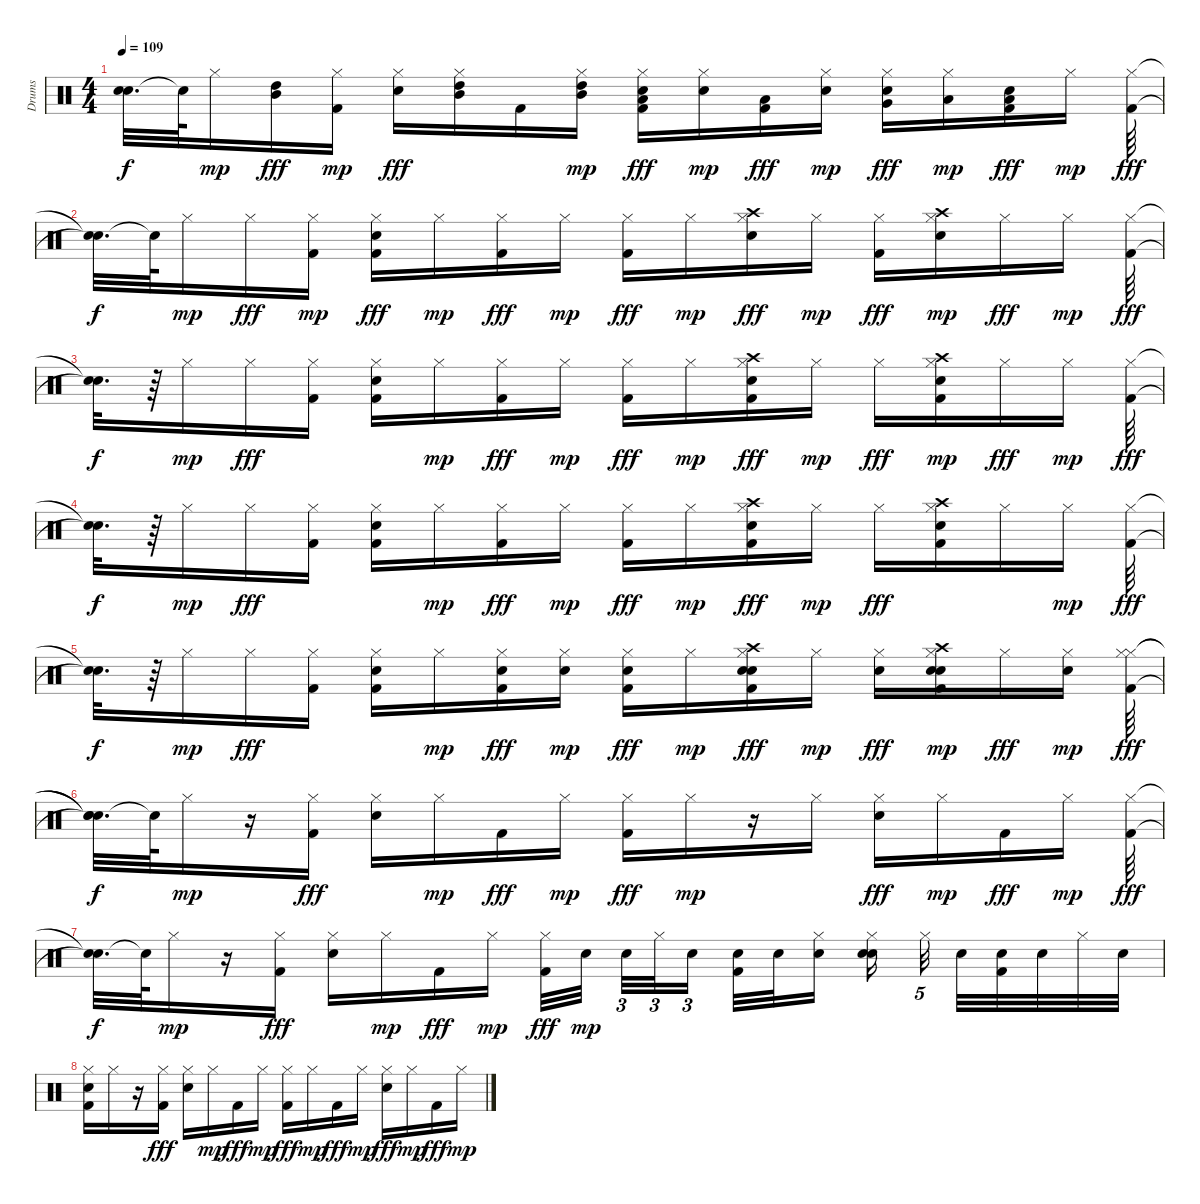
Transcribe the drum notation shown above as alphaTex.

\track ("Drums" "Drums") {instrument percussion}
\staff {score}
\articulation defaults
\ts (4 4)
\tempo 109
\clef neutral
\ks c
("Snare (hit)"{t} "Snare (hit)"{t}).32{d dy f} "Snare (hit)"{t}.64 "Hi-Hat (closed)".16{dy mp} ("High Tom (hit)" "Mid Tom (hit)").16{dy fff} ("Kick (hit) 2" "Hi-Hat (closed)").16{dy mp} ("Hi-Hat (closed)" "Snare (hit) 2").16{dy fff} ("High Tom (hit)" "Hi-Hat (closed)" "Mid Tom (hit)").16 "Kick (hit) 2".16 ("Mid Tom (hit)" "High Tom (hit)" "Hi-Hat (closed)").16{dy mp} ("Low Tom (hit)" "Kick (hit) 2" "Snare (hit) 2" "Hi-Hat (closed)").16{dy fff} ("Snare (hit) 2" "Hi-Hat (closed)").16{dy mp} ("Low Tom (hit)" "Kick (hit) 2").16{dy fff} ("Snare (hit) 2" "Hi-Hat (closed)").16{dy mp} ("Very Low Tom (hit)" "Snare (hit) 2" "Hi-Hat (closed)").16{dy fff} ("Low Floor Tom (hit)" "Hi-Hat (closed)").16{dy mp} ("Low Floor Tom (hit)" "Kick (hit) 2" "Snare (hit) 2").16{dy fff} "Hi-Hat (closed)".16{dy mp} ("Hi-Hat (closed)" "Kick (hit) 2").64{dy fff} |
("Snare (hit)"{t} "Snare (hit)"{t}).32{d dy f} "Snare (hit)"{t}.64 "Hi-Hat (closed)".16{dy mp} "Hi-Hat (closed)".16{dy fff} ("Kick (hit) 2" "Hi-Hat (closed)").16{dy mp} ("Hi-Hat (closed)" "Snare (hit) 2" "Kick (hit) 2").16{dy fff} "Hi-Hat (closed)".16{dy mp} ("Kick (hit) 2" "Hi-Hat (closed)").16{dy fff} "Hi-Hat (closed)".16{dy mp} ("Kick (hit) 2" "Hi-Hat (closed)").16{dy fff} "Hi-Hat (closed)".16{dy mp} ("Snare (hit) 2" "Crash high (hit)" "Hi-Hat (closed)").16{dy fff} "Hi-Hat (closed)".16{dy mp} ("Kick (hit) 2" "Hi-Hat (closed)").16{dy fff} ("Snare (hit) 2" "Crash high (hit)" "Hi-Hat (closed)").16{dy mp} "Hi-Hat (closed)".16{dy fff} "Hi-Hat (closed)".16{dy mp} ("Kick (hit) 2" "Hi-Hat (closed)").64{dy fff} |
("Snare (hit)"{t} "Snare (hit)"{t}).32{d dy f} r.64 "Hi-Hat (closed)".16{dy mp} "Hi-Hat (closed)".16{dy fff} ("Hi-Hat (closed)" "Kick (hit) 2").16 ("Snare (hit) 2" "Kick (hit) 2" "Hi-Hat (closed)").16 "Hi-Hat (closed)".16{dy mp} ("Hi-Hat (closed)" "Kick (hit) 2").16{dy fff} "Hi-Hat (closed)".16{dy mp} ("Kick (hit) 2" "Hi-Hat (closed)").16{dy fff} "Hi-Hat (closed)".16{dy mp} ("Hi-Hat (closed)" "Snare (hit) 2" "Kick (hit) 2" "Crash high (hit)").16{dy fff} "Hi-Hat (closed)".16{dy mp} "Hi-Hat (closed)".16{dy fff} ("Snare (hit) 2" "Kick (hit) 2" "Crash high (hit)" "Hi-Hat (closed)").16{dy mp} "Hi-Hat (closed)".16{dy fff} "Hi-Hat (closed)".16{dy mp} ("Kick (hit) 2" "Hi-Hat (closed)").64{dy fff} |
("Snare (hit)"{t} "Snare (hit)"{t}).32{d dy f} r.64 "Hi-Hat (closed)".16{dy mp} "Hi-Hat (closed)".16{dy fff} ("Hi-Hat (closed)" "Kick (hit) 2").16 ("Snare (hit) 2" "Kick (hit) 2" "Hi-Hat (closed)").16 "Hi-Hat (closed)".16{dy mp} ("Kick (hit) 2" "Hi-Hat (closed)").16{dy fff} "Hi-Hat (closed)".16{dy mp} ("Kick (hit) 2" "Hi-Hat (closed)").16{dy fff} "Hi-Hat (closed)".16{dy mp} ("Crash high (hit)" "Kick (hit) 2" "Snare (hit) 2" "Hi-Hat (closed)").16{dy fff} "Hi-Hat (closed)".16{dy mp} "Hi-Hat (closed)".16{dy fff} ("Hi-Hat (closed)" "Crash high (hit)" "Kick (hit) 2" "Snare (hit) 2").16 "Hi-Hat (closed)".16 "Hi-Hat (closed)".16{dy mp} ("Kick (hit) 2" "Hi-Hat (closed)").64{dy fff} |
("Snare (hit)"{t} "Snare (hit)"{t}).32{d dy f} r.64 "Hi-Hat (closed)".16{dy mp} "Hi-Hat (closed)".16{dy fff} ("Hi-Hat (closed)" "Kick (hit) 2").16 ("Snare (hit) 2" "Kick (hit) 2" "Hi-Hat (closed)").16 "Hi-Hat (closed)".16{dy mp} ("Kick (hit) 2" "Hi-Hat (closed)" "Snare (hit) 2").16{dy fff} ("Snare (hit) 2" "Hi-Hat (closed)").16{dy mp} ("Snare (hit) 2" "Kick (hit) 2" "Hi-Hat (closed)").16{dy fff} "Hi-Hat (closed)".16{dy mp} ("Snare (hit) 2" "Crash high (hit)" "Kick (hit) 2" "Snare (hit) 2" "Hi-Hat (closed)").16{dy fff} "Hi-Hat (closed)".16{dy mp} ("Hi-Hat (closed)" "Snare (hit) 2").16{dy fff} ("Snare (hit) 2" "Crash high (hit)" "Snare (hit) 2" "Kick (hit) 2" "Hi-Hat (closed)").16{dy mp} "Hi-Hat (closed)".16{dy fff} ("Snare (hit) 2" "Hi-Hat (closed)").16{dy mp} ("Kick (hit) 2" "Hi-Hat (closed)" "Hi-Hat (closed)").64{dy fff} |
("Snare (hit)"{t} "Snare (hit)"{t} "Snare (hit)"{t}).32{d dy f} "Snare (hit)"{t}.64 "Hi-Hat (closed)".16{dy mp} r.16 ("Hi-Hat (closed)" "Kick (hit) 2").16{dy fff} ("Hi-Hat (closed)" "Snare (hit) 2").16 "Hi-Hat (closed)".16{dy mp} "Kick (hit) 2".16{dy fff} "Hi-Hat (closed)".16{dy mp} ("Hi-Hat (closed)" "Kick (hit) 2").16{dy fff} "Hi-Hat (closed)".16{dy mp} r.16 "Hi-Hat (closed)".16 ("Snare (hit) 2" "Hi-Hat (closed)").16{dy fff} "Hi-Hat (closed)".16{dy mp} "Kick (hit) 2".16{dy fff} "Hi-Hat (closed)".16{dy mp} ("Hi-Hat (closed)" "Kick (hit) 2").64{dy fff} |
("Snare (hit)"{t} "Snare (hit)"{t}).32{d dy f} "Snare (hit)"{t}.64 "Hi-Hat (closed)".16{dy mp} r.16 ("Hi-Hat (closed)" "Kick (hit) 2").16{dy fff} ("Hi-Hat (closed)" "Snare (hit) 2").16 "Hi-Hat (closed)".16{dy mp} "Kick (hit) 2".16{dy fff} "Hi-Hat (closed)".16{dy mp} ("Hi-Hat (closed)" "Kick (hit) 2").32{dy fff} "Snare (hit) 2".32{dy mp beam splitsecondary} "Snare (hit) 2".32{tu (3 2)} "Hi-Hat (closed)".32{tu (3 2)} "Snare (hit) 2".16{tu (3 2) beam splitsecondary} ("Kick (hit) 2" "Snare (hit) 2").32 "Snare (hit) 2".32 ("Hi-Hat (closed)" "Snare (hit) 2").16 ("Hi-Hat (closed)" "Snare (hit) 2" "Snare (hit) 2").16{beam splitsecondary} "Hi-Hat (closed)".32{tu (5 4) beam splitsecondary} "Snare (hit) 2".32 ("Kick (hit) 2" "Snare (hit) 2").32 "Snare (hit) 2".32 "Hi-Hat (closed)".32 "Snare (hit) 2".32 |
("Kick (hit) 2" "Hi-Hat (closed)" "Snare (hit) 2").16 "Hi-Hat (closed)".16 r.16 ("Hi-Hat (closed)" "Kick (hit) 2").16{dy fff} ("Hi-Hat (closed)" "Snare (hit) 2").16 "Hi-Hat (closed)".16{dy mp} "Kick (hit) 2".16{dy fff} "Hi-Hat (closed)".16{dy mp} ("Hi-Hat (closed)" "Kick (hit) 2").16{dy fff} "Hi-Hat (closed)".16{dy mp} "Kick (hit) 2".16{dy fff} "Hi-Hat (closed)".16{dy mp} ("Hi-Hat (closed)" "Snare (hit) 2").16{dy fff} "Hi-Hat (closed)".16{dy mp} "Kick (hit) 2".16{dy fff} "Hi-Hat (closed)".16{dy mp}
